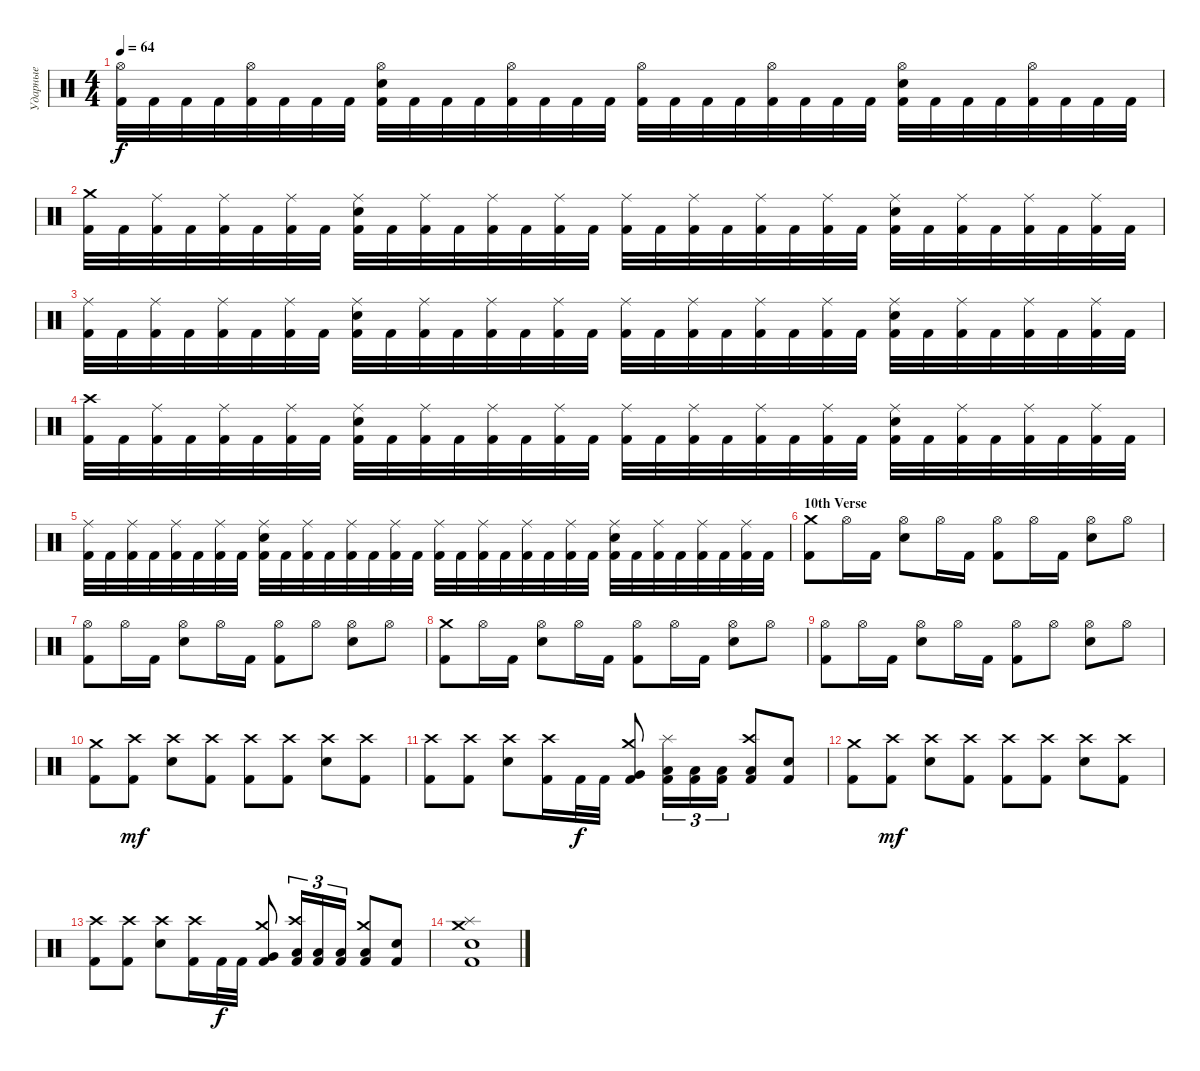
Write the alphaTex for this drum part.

\track ("Ударные" "Ударные") {instrument percussion}
\staff {score}
\articulation defaults
\ts (4 4)
\tempo 64
\clef neutral
\ks c
("Kick (hit) 2" "Hi-Hat (open)").32{dy f} "Kick (hit) 2".32 "Kick (hit) 2".32 "Kick (hit) 2".32 ("Kick (hit) 2" "Hi-Hat (open)").32 "Kick (hit) 2".32 "Kick (hit) 2".32 "Kick (hit) 2".32 ("Kick (hit) 2" "Electric Snare (hit)" "Hi-Hat (open)").32 "Kick (hit) 2".32 "Kick (hit) 2".32 "Kick (hit) 2".32 ("Kick (hit) 2" "Hi-Hat (open)").32 "Kick (hit) 2".32 "Kick (hit) 2".32 "Kick (hit) 2".32 ("Kick (hit) 2" "Hi-Hat (open)").32 "Kick (hit) 2".32 "Kick (hit) 2".32 "Kick (hit) 2".32 ("Kick (hit) 2" "Hi-Hat (open)").32 "Kick (hit) 2".32 "Kick (hit) 2".32 "Kick (hit) 2".32 ("Kick (hit) 2" "Electric Snare (hit)" "Hi-Hat (open)").32 "Kick (hit) 2".32 "Kick (hit) 2".32 "Kick (hit) 2".32 ("Kick (hit) 2" "Hi-Hat (open)").32 "Kick (hit) 2".32 "Kick (hit) 2".32 "Kick (hit) 2".32 |
("Kick (hit) 2" "Crash medium (hit)").32 "Kick (hit) 2".32 ("Kick (hit) 2" "Ride (middle)").32 "Kick (hit) 2".32 ("Kick (hit) 2" "Ride (middle)").32 "Kick (hit) 2".32 ("Kick (hit) 2" "Ride (middle)").32 "Kick (hit) 2".32 ("Kick (hit) 2" "Electric Snare (hit)" "Ride (middle)").32 "Kick (hit) 2".32 ("Kick (hit) 2" "Ride (middle)").32 "Kick (hit) 2".32 ("Kick (hit) 2" "Ride (middle)").32 "Kick (hit) 2".32 ("Kick (hit) 2" "Ride (middle)").32 "Kick (hit) 2".32 ("Kick (hit) 2" "Ride (middle)").32 "Kick (hit) 2".32 ("Kick (hit) 2" "Ride (middle)").32 "Kick (hit) 2".32 ("Kick (hit) 2" "Ride (middle)").32 "Kick (hit) 2".32 ("Kick (hit) 2" "Ride (middle)").32 "Kick (hit) 2".32 ("Kick (hit) 2" "Electric Snare (hit)" "Ride (middle)").32 "Kick (hit) 2".32 ("Kick (hit) 2" "Ride (middle)").32 "Kick (hit) 2".32 ("Kick (hit) 2" "Ride (middle)").32 "Kick (hit) 2".32 ("Kick (hit) 2" "Ride (middle)").32 "Kick (hit) 2".32 |
("Kick (hit) 2" "Ride (middle)").32 "Kick (hit) 2".32 ("Kick (hit) 2" "Ride (middle)").32 "Kick (hit) 2".32 ("Kick (hit) 2" "Ride (middle)").32 "Kick (hit) 2".32 ("Kick (hit) 2" "Ride (middle)").32 "Kick (hit) 2".32 ("Kick (hit) 2" "Electric Snare (hit)" "Ride (middle)").32 "Kick (hit) 2".32 ("Kick (hit) 2" "Ride (middle)").32 "Kick (hit) 2".32 ("Kick (hit) 2" "Ride (middle)").32 "Kick (hit) 2".32 ("Kick (hit) 2" "Ride (middle)").32 "Kick (hit) 2".32 ("Kick (hit) 2" "Ride (middle)").32 "Kick (hit) 2".32 ("Kick (hit) 2" "Ride (middle)").32 "Kick (hit) 2".32 ("Kick (hit) 2" "Ride (middle)").32 "Kick (hit) 2".32 ("Kick (hit) 2" "Ride (middle)").32 "Kick (hit) 2".32 ("Kick (hit) 2" "Electric Snare (hit)" "Ride (middle)").32 "Kick (hit) 2".32 ("Kick (hit) 2" "Ride (middle)").32 "Kick (hit) 2".32 ("Kick (hit) 2" "Ride (middle)").32 "Kick (hit) 2".32 ("Kick (hit) 2" "Ride (middle)").32 "Kick (hit) 2".32 |
("Kick (hit) 2" "Crash high (hit)").32 "Kick (hit) 2".32 ("Kick (hit) 2" "Ride (middle)").32 "Kick (hit) 2".32 ("Kick (hit) 2" "Ride (middle)").32 "Kick (hit) 2".32 ("Kick (hit) 2" "Ride (middle)").32 "Kick (hit) 2".32 ("Kick (hit) 2" "Electric Snare (hit)" "Ride (middle)").32 "Kick (hit) 2".32 ("Kick (hit) 2" "Ride (middle)").32 "Kick (hit) 2".32 ("Kick (hit) 2" "Ride (middle)").32 "Kick (hit) 2".32 ("Kick (hit) 2" "Ride (middle)").32 "Kick (hit) 2".32 ("Kick (hit) 2" "Ride (middle)").32 "Kick (hit) 2".32 ("Kick (hit) 2" "Ride (middle)").32 "Kick (hit) 2".32 ("Kick (hit) 2" "Ride (middle)").32 "Kick (hit) 2".32 ("Kick (hit) 2" "Ride (middle)").32 "Kick (hit) 2".32 ("Kick (hit) 2" "Electric Snare (hit)" "Ride (middle)").32 "Kick (hit) 2".32 ("Kick (hit) 2" "Ride (middle)").32 "Kick (hit) 2".32 ("Kick (hit) 2" "Ride (middle)").32 "Kick (hit) 2".32 ("Kick (hit) 2" "Ride (middle)").32 "Kick (hit) 2".32 |
("Kick (hit) 2" "Ride (middle)").32 "Kick (hit) 2".32 ("Kick (hit) 2" "Ride (middle)").32 "Kick (hit) 2".32 ("Kick (hit) 2" "Ride (middle)").32 "Kick (hit) 2".32 ("Kick (hit) 2" "Ride (middle)").32 "Kick (hit) 2".32 ("Kick (hit) 2" "Electric Snare (hit)" "Ride (middle)").32 "Kick (hit) 2".32 ("Kick (hit) 2" "Ride (middle)").32 "Kick (hit) 2".32 ("Kick (hit) 2" "Ride (middle)").32 "Kick (hit) 2".32 ("Kick (hit) 2" "Ride (middle)").32 "Kick (hit) 2".32 ("Kick (hit) 2" "Ride (middle)").32 "Kick (hit) 2".32 ("Kick (hit) 2" "Ride (middle)").32 "Kick (hit) 2".32 ("Kick (hit) 2" "Ride (middle)").32 "Kick (hit) 2".32 ("Kick (hit) 2" "Ride (middle)").32 "Kick (hit) 2".32 ("Kick (hit) 2" "Electric Snare (hit)" "Ride (middle)").32 "Kick (hit) 2".32 ("Kick (hit) 2" "Ride (middle)").32 "Kick (hit) 2".32 ("Kick (hit) 2" "Ride (middle)").32 "Kick (hit) 2".32 ("Kick (hit) 2" "Ride (middle)").32 "Kick (hit) 2".32 |
\section ("" "10th Verse")
("Kick (hit) 2" "Crash medium (hit)").8 "Hi-Hat (open)".16 "Kick (hit) 2".16 ("Electric Snare (hit)" "Hi-Hat (open)").8 "Hi-Hat (open)".16 "Kick (hit) 2".16 ("Kick (hit) 2" "Hi-Hat (open)").8 "Hi-Hat (open)".16 "Kick (hit) 2".16 ("Electric Snare (hit)" "Hi-Hat (open)").8 "Hi-Hat (open)".8 |
("Kick (hit) 2" "Hi-Hat (open)").8 "Hi-Hat (open)".16 "Kick (hit) 2".16 ("Electric Snare (hit)" "Hi-Hat (open)").8 "Hi-Hat (open)".16 "Kick (hit) 2".16 ("Kick (hit) 2" "Hi-Hat (open)").8 "Hi-Hat (open)".8 ("Electric Snare (hit)" "Hi-Hat (open)").8 "Hi-Hat (open)".8 |
("Kick (hit) 2" "Crash medium (hit)").8 "Hi-Hat (open)".16 "Kick (hit) 2".16 ("Electric Snare (hit)" "Hi-Hat (open)").8 "Hi-Hat (open)".16 "Kick (hit) 2".16 ("Kick (hit) 2" "Hi-Hat (open)").8 "Hi-Hat (open)".16 "Kick (hit) 2".16 ("Electric Snare (hit)" "Hi-Hat (open)").8 "Hi-Hat (open)".8 |
("Kick (hit) 2" "Hi-Hat (open)").8 "Hi-Hat (open)".16 "Kick (hit) 2".16 ("Electric Snare (hit)" "Hi-Hat (open)").8 "Hi-Hat (open)".16 "Kick (hit) 2".16 ("Kick (hit) 2" "Hi-Hat (open)").8 "Hi-Hat (open)".8 ("Electric Snare (hit)" "Hi-Hat (open)").8 "Hi-Hat (open)".8 |
("Kick (hit) 2" "Crash medium (hit)").8 ("Kick (hit) 2" "Crash high (hit)").8{dy mf} ("Electric Snare (hit)" "Crash high (hit)").8 ("Kick (hit) 2" "Crash high (hit)").8 ("Kick (hit) 2" "Crash high (hit)").8 ("Kick (hit) 2" "Crash high (hit)").8 ("Electric Snare (hit)" "Crash high (hit)").8 ("Kick (hit) 2" "Crash high (hit)").8 |
("Kick (hit) 2" "Crash high (hit)").8 ("Kick (hit) 2" "Crash high (hit)").8 ("Electric Snare (hit)" "Crash high (hit)").8 ("Kick (hit) 2" "Crash high (hit)").16 "Kick (hit) 2".32{dy f} "Kick (hit) 2".32 ("Kick (hit) 2" "Very Low Tom (hit)" "Crash medium (hit)").8 ("Kick (hit) 2" "Low Floor Tom (hit)" "Splash (hit)").16{tu (3 2)} ("Kick (hit) 2" "Low Floor Tom (hit)").16{tu (3 2)} ("Kick (hit) 2" "Low Floor Tom (hit)").16{tu (3 2)} ("Kick (hit) 2" "Low Floor Tom (hit)" "Crash high (hit)").8 ("Kick (hit) 2" "Electric Snare (hit)").8 |
("Kick (hit) 2" "Crash medium (hit)").8 ("Kick (hit) 2" "Crash high (hit)").8{dy mf} ("Electric Snare (hit)" "Crash high (hit)").8 ("Kick (hit) 2" "Crash high (hit)").8 ("Kick (hit) 2" "Crash high (hit)").8 ("Kick (hit) 2" "Crash high (hit)").8 ("Electric Snare (hit)" "Crash high (hit)").8 ("Kick (hit) 2" "Crash high (hit)").8 |
("Kick (hit) 2" "Crash high (hit)").8 ("Kick (hit) 2" "Crash high (hit)").8 ("Electric Snare (hit)" "Crash high (hit)").8 ("Kick (hit) 2" "Crash high (hit)").16 "Kick (hit) 2".32{dy f} "Kick (hit) 2".32 ("Kick (hit) 2" "Very Low Tom (hit)" "Crash medium (hit)").8 ("Kick (hit) 2" "Low Floor Tom (hit)" "Crash high (hit)").16{tu (3 2)} ("Kick (hit) 2" "Low Floor Tom (hit)").16{tu (3 2)} ("Kick (hit) 2" "Low Floor Tom (hit)").16{tu (3 2)} ("Kick (hit) 2" "Low Floor Tom (hit)" "Crash medium (hit)").8 ("Kick (hit) 2" "Electric Snare (hit)").8 |
("Kick (hit) 2" "Electric Snare (hit)" "Splash (hit)" "Crash medium (hit)").1
